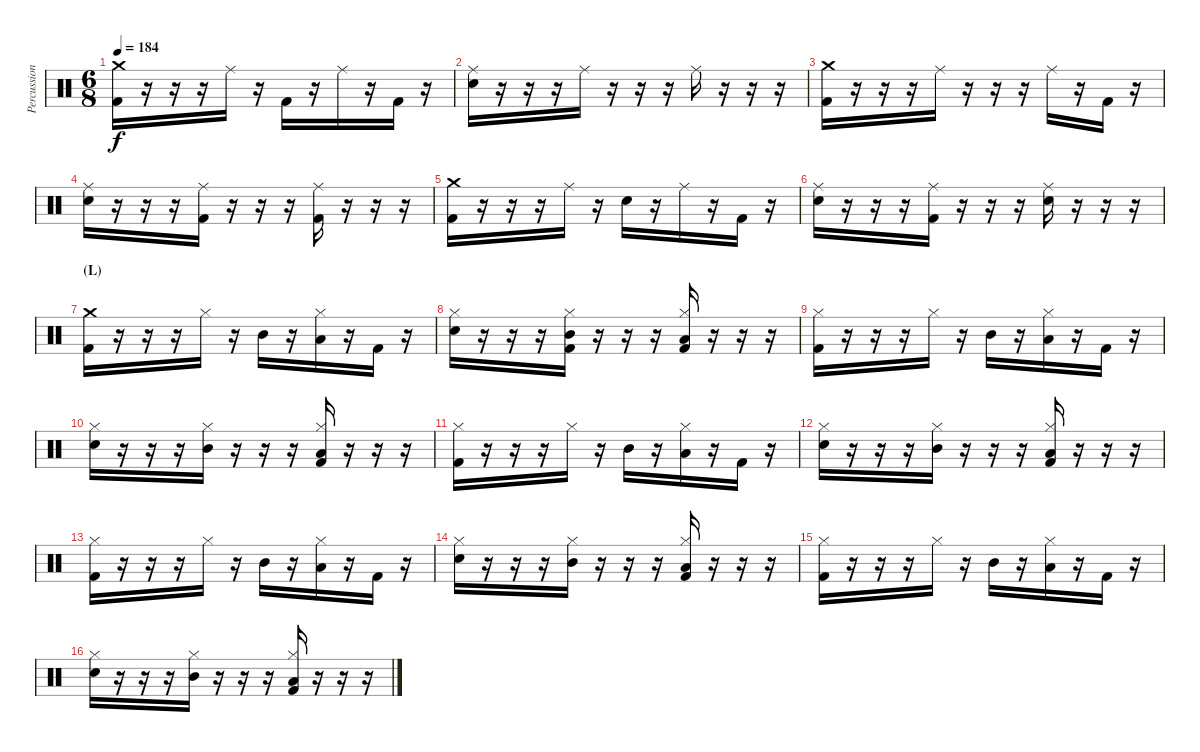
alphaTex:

\track ("Percussion" "Percussion") {instrument percussion}
\staff {score}
\articulation defaults
\ts (6 8)
\tempo 184
\clef neutral
\ks c
("Crash medium (hit)" "Kick (hit) 2").16{dy f} r.16 r.16 r.16 "Ride (middle)".16 r.16 "Kick (hit) 2".16 r.16 "Ride (middle)".16 r.16 "Kick (hit) 2".16 r.16 |
("Ride (middle)" "Electric Snare (hit)").16 r.16 r.16 r.16 "Ride (middle)".16 r.16 r.16 r.16 "Ride (middle)".16 r.16 r.16 r.16 |
("Crash medium (hit)" "Kick (hit) 2").16 r.16 r.16 r.16 "Ride (middle)".16 r.16 r.16 r.16 "Ride (middle)".16 r.16 "Kick (hit) 2".16 r.16 |
("Ride (middle)" "Electric Snare (hit)").16 r.16 r.16 r.16 ("Ride (middle)" "Kick (hit) 2").16 r.16 r.16 r.16 ("Ride (middle)" "Kick (hit) 2").16 r.16 r.16 r.16 |
("Crash medium (hit)" "Kick (hit) 2").16 r.16 r.16 r.16 "Ride (middle)".16 r.16 "Electric Snare (hit)".16 r.16 "Ride (middle)".16 r.16 "Kick (hit) 2".16 r.16 |
("Ride (middle)" "Electric Snare (hit)").16 r.16 r.16 r.16 ("Ride (middle)" "Kick (hit) 2").16 r.16 r.16 r.16 ("Ride (middle)" "Electric Snare (hit)").16 r.16 r.16 r.16 |
\section ("" "(L)")
("Crash medium (hit)" "Kick (hit) 2").16 r.16 r.16 r.16 "Hi-Hat (closed)".16 r.16 "Mid Tom (hit)".16 r.16 ("Hi-Hat (closed)" "Low Tom (hit)").16 r.16 "Kick (hit) 2".16 r.16 |
("Hi-Hat (closed)" "Electric Snare (hit)").16 r.16 r.16 r.16 ("Hi-Hat (closed)" "Mid Tom (hit)" "Kick (hit) 2").16 r.16 r.16 r.16 ("Hi-Hat (closed)" "Low Tom (hit)" "Kick (hit) 2").16 r.16 r.16 r.16 |
("Hi-Hat (closed)" "Kick (hit) 2").16 r.16 r.16 r.16 "Hi-Hat (closed)".16 r.16 "Mid Tom (hit)".16 r.16 ("Hi-Hat (closed)" "Low Tom (hit)").16 r.16 "Kick (hit) 2".16 r.16 |
("Hi-Hat (closed)" "Electric Snare (hit)").16 r.16 r.16 r.16 ("Hi-Hat (closed)" "Mid Tom (hit)").16 r.16 r.16 r.16 ("Hi-Hat (closed)" "Low Tom (hit)" "Kick (hit) 2").16 r.16 r.16 r.16 |
("Hi-Hat (closed)" "Kick (hit) 2").16 r.16 r.16 r.16 "Hi-Hat (closed)".16 r.16 "Mid Tom (hit)".16 r.16 ("Hi-Hat (closed)" "Low Tom (hit)").16 r.16 "Kick (hit) 2".16 r.16 |
("Hi-Hat (closed)" "Electric Snare (hit)").16 r.16 r.16 r.16 ("Hi-Hat (closed)" "Mid Tom (hit)").16 r.16 r.16 r.16 ("Hi-Hat (closed)" "Low Tom (hit)" "Kick (hit) 2").16 r.16 r.16 r.16 |
("Hi-Hat (closed)" "Kick (hit) 2").16 r.16 r.16 r.16 "Hi-Hat (closed)".16 r.16 "Mid Tom (hit)".16 r.16 ("Hi-Hat (closed)" "Low Tom (hit)").16 r.16 "Kick (hit) 2".16 r.16 |
("Hi-Hat (closed)" "Electric Snare (hit)").16 r.16 r.16 r.16 ("Hi-Hat (closed)" "Mid Tom (hit)").16 r.16 r.16 r.16 ("Hi-Hat (closed)" "Low Tom (hit)" "Kick (hit) 2").16 r.16 r.16 r.16 |
("Hi-Hat (closed)" "Kick (hit) 2").16 r.16 r.16 r.16 "Hi-Hat (closed)".16 r.16 "Mid Tom (hit)".16 r.16 ("Hi-Hat (closed)" "Low Tom (hit)").16 r.16 "Kick (hit) 2".16 r.16 |
("Hi-Hat (closed)" "Electric Snare (hit)").16 r.16 r.16 r.16 ("Hi-Hat (closed)" "Mid Tom (hit)").16 r.16 r.16 r.16 ("Hi-Hat (closed)" "Low Tom (hit)" "Kick (hit) 2").16 r.16 r.16 r.16
